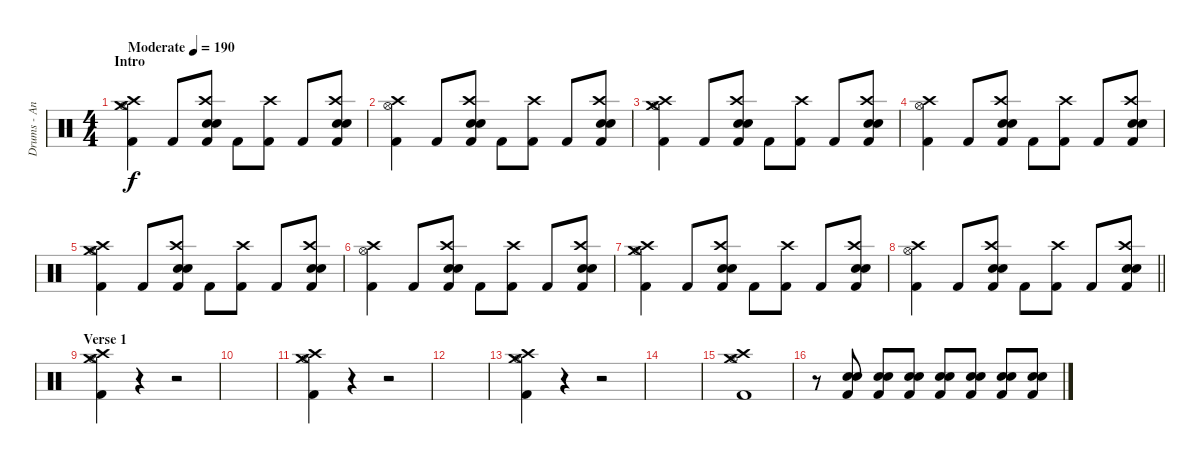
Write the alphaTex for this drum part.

\track ("Drums - Anders Johansson" "Drums - An") {instrument percussion}
\staff {score}
\articulation defaults
\ts (4 4)
\section ("" "Intro")
\tempo (190 "Moderate")
\clef neutral
\ks c
("Hi-Hat (open)" "Kick (hit) 2" "Crash medium (hit)" "Crash high (hit)").4{dy f} "Kick (hit) 2".8 ("Electric Snare (hit)" "Snare (hit) 2" "Kick (hit) 2" "Crash high (hit)").8 "Kick (hit) 2".8 ("Kick (hit) 2" "Crash high (hit)").8 "Kick (hit) 2".8 ("Electric Snare (hit)" "Snare (hit) 2" "Kick (hit) 2" "Crash high (hit)").8 |
("Hi-Hat (open)" "Kick (hit) 2" "Crash high (hit)").4 "Kick (hit) 2".8 ("Electric Snare (hit)" "Snare (hit) 2" "Kick (hit) 2" "Crash high (hit)").8 "Kick (hit) 2".8 ("Kick (hit) 2" "Crash high (hit)").8 "Kick (hit) 2".8 ("Electric Snare (hit)" "Snare (hit) 2" "Kick (hit) 2" "Crash high (hit)").8 |
("Hi-Hat (open)" "Kick (hit) 2" "Crash medium (hit)" "Crash high (hit)").4 "Kick (hit) 2".8 ("Electric Snare (hit)" "Snare (hit) 2" "Kick (hit) 2" "Crash high (hit)").8 "Kick (hit) 2".8 ("Kick (hit) 2" "Crash high (hit)").8 "Kick (hit) 2".8 ("Electric Snare (hit)" "Snare (hit) 2" "Kick (hit) 2" "Crash high (hit)").8 |
("Hi-Hat (open)" "Kick (hit) 2" "Crash high (hit)").4 "Kick (hit) 2".8 ("Electric Snare (hit)" "Snare (hit) 2" "Kick (hit) 2" "Crash high (hit)").8 "Kick (hit) 2".8 ("Kick (hit) 2" "Crash high (hit)").8 "Kick (hit) 2".8 ("Electric Snare (hit)" "Snare (hit) 2" "Kick (hit) 2" "Crash high (hit)").8 |
("Hi-Hat (open)" "Kick (hit) 2" "Crash medium (hit)" "Crash high (hit)").4 "Kick (hit) 2".8 ("Electric Snare (hit)" "Snare (hit) 2" "Kick (hit) 2" "Crash high (hit)").8 "Kick (hit) 2".8 ("Kick (hit) 2" "Crash high (hit)").8 "Kick (hit) 2".8 ("Electric Snare (hit)" "Snare (hit) 2" "Kick (hit) 2" "Crash high (hit)").8 |
("Hi-Hat (open)" "Kick (hit) 2" "Crash high (hit)").4 "Kick (hit) 2".8 ("Electric Snare (hit)" "Snare (hit) 2" "Kick (hit) 2" "Crash high (hit)").8 "Kick (hit) 2".8 ("Kick (hit) 2" "Crash high (hit)").8 "Kick (hit) 2".8 ("Electric Snare (hit)" "Snare (hit) 2" "Kick (hit) 2" "Crash high (hit)").8 |
("Hi-Hat (open)" "Kick (hit) 2" "Crash medium (hit)" "Crash high (hit)").4 "Kick (hit) 2".8 ("Electric Snare (hit)" "Snare (hit) 2" "Kick (hit) 2" "Crash high (hit)").8 "Kick (hit) 2".8 ("Kick (hit) 2" "Crash high (hit)").8 "Kick (hit) 2".8 ("Electric Snare (hit)" "Snare (hit) 2" "Kick (hit) 2" "Crash high (hit)").8 |
\barLineRight lightlight
("Hi-Hat (open)" "Kick (hit) 2" "Crash high (hit)").4 "Kick (hit) 2".8 ("Electric Snare (hit)" "Snare (hit) 2" "Kick (hit) 2" "Crash high (hit)").8 "Kick (hit) 2".8 ("Kick (hit) 2" "Crash high (hit)").8 "Kick (hit) 2".8 ("Electric Snare (hit)" "Snare (hit) 2" "Kick (hit) 2" "Crash high (hit)").8 |
\section ("" "Verse 1")
("Hi-Hat (open)" "Kick (hit) 2" "Crash medium (hit)" "Crash high (hit)").4 r.4 r.2 |
|
("Hi-Hat (open)" "Kick (hit) 2" "Crash medium (hit)" "Crash high (hit)").4 r.4 r.2 |
|
("Hi-Hat (open)" "Kick (hit) 2" "Crash medium (hit)" "Crash high (hit)").4 r.4 r.2 |
|
("Hi-Hat (open)" "Kick (hit) 2" "Crash medium (hit)" "Crash high (hit)").1 |
r.8 ("Electric Snare (hit)" "Snare (hit) 2" "Kick (hit) 2").8 ("Electric Snare (hit)" "Snare (hit) 2" "Kick (hit) 2").8 ("Electric Snare (hit)" "Snare (hit) 2" "Kick (hit) 2").8 ("Electric Snare (hit)" "Snare (hit) 2" "Kick (hit) 2").8 ("Electric Snare (hit)" "Snare (hit) 2" "Kick (hit) 2").8 ("Electric Snare (hit)" "Snare (hit) 2" "Kick (hit) 2").8 ("Electric Snare (hit)" "Snare (hit) 2" "Kick (hit) 2").8
